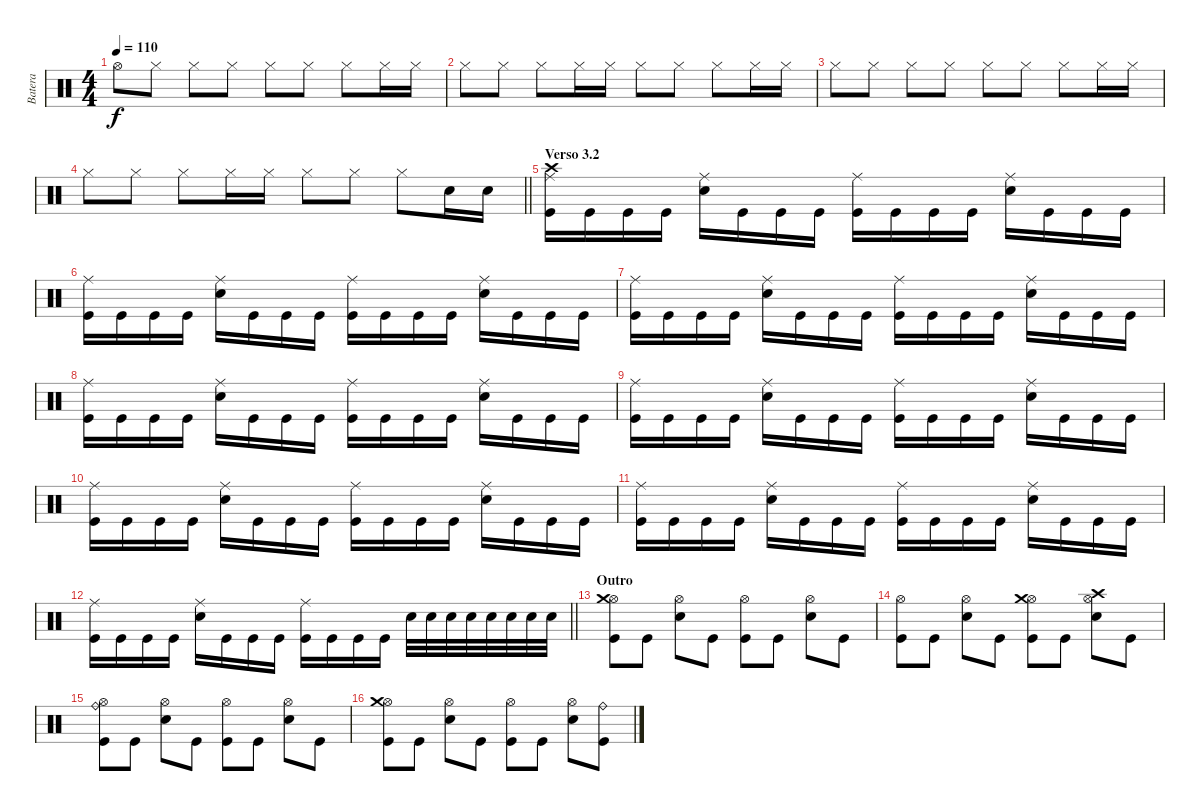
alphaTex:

\track ("Batera" "Batera") {instrument percussion}
\staff {score}
\articulation defaults
\ts (4 4)
\tempo 110
\clef neutral
\ks c "Hi-Hat (open)".8{dy f} "Hi-Hat (closed)".8 "Hi-Hat (closed)".8 "Hi-Hat (closed)".8 "Hi-Hat (closed)".8 "Hi-Hat (closed)".8 "Hi-Hat (closed)".8 "Hi-Hat (closed)".16 "Hi-Hat (closed)".16
|
"Hi-Hat (closed)".8 "Hi-Hat (closed)".8 "Hi-Hat (closed)".8 "Hi-Hat (closed)".16 "Hi-Hat (closed)".16 "Hi-Hat (closed)".8 "Hi-Hat (closed)".8 "Hi-Hat (closed)".8 "Hi-Hat (closed)".16 "Hi-Hat (closed)".16 |
"Hi-Hat (closed)".8 "Hi-Hat (closed)".8 "Hi-Hat (closed)".8 "Hi-Hat (closed)".8 "Hi-Hat (closed)".8 "Hi-Hat (closed)".8 "Hi-Hat (closed)".8 "Hi-Hat (closed)".16 "Hi-Hat (closed)".16 |
\barLineRight lightlight "Hi-Hat (closed)".8 "Hi-Hat (closed)".8 "Hi-Hat (closed)".8 "Hi-Hat (closed)".16 "Hi-Hat (closed)".16 "Hi-Hat (closed)".8 "Hi-Hat (closed)".8 "Hi-Hat (closed)".8 "Snare (hit) 2".16 "Snare (hit) 2".16
|
\section ("" "Verso 3.2")
("Ride (middle)" "Crash high (hit)" "Kick (hit)").16 "Kick (hit)".16 "Kick (hit)".16 "Kick (hit)".16 ("Ride (middle)" "Snare (hit) 2").16 "Kick (hit)".16 "Kick (hit)".16 "Kick (hit)".16 ("Ride (middle)" "Kick (hit)").16 "Kick (hit)".16 "Kick (hit)".16 "Kick (hit)".16 ("Ride (middle)" "Snare (hit) 2").16 "Kick (hit)".16 "Kick (hit)".16 "Kick (hit)".16 |
("Ride (middle)" "Kick (hit)").16 "Kick (hit)".16 "Kick (hit)".16 "Kick (hit)".16 ("Ride (middle)" "Snare (hit) 2").16 "Kick (hit)".16 "Kick (hit)".16 "Kick (hit)".16 ("Ride (middle)" "Kick (hit)").16 "Kick (hit)".16 "Kick (hit)".16 "Kick (hit)".16 ("Ride (middle)" "Snare (hit) 2").16 "Kick (hit)".16 "Kick (hit)".16 "Kick (hit)".16 |
("Ride (middle)" "Kick (hit)").16 "Kick (hit)".16 "Kick (hit)".16 "Kick (hit)".16 ("Ride (middle)" "Snare (hit) 2").16 "Kick (hit)".16 "Kick (hit)".16 "Kick (hit)".16 ("Ride (middle)" "Kick (hit)").16 "Kick (hit)".16 "Kick (hit)".16 "Kick (hit)".16 ("Ride (middle)" "Snare (hit) 2").16 "Kick (hit)".16 "Kick (hit)".16 "Kick (hit)".16 |
("Ride (middle)" "Kick (hit)").16 "Kick (hit)".16 "Kick (hit)".16 "Kick (hit)".16 ("Ride (middle)" "Snare (hit) 2").16 "Kick (hit)".16 "Kick (hit)".16 "Kick (hit)".16 ("Ride (middle)" "Kick (hit)").16 "Kick (hit)".16 "Kick (hit)".16 "Kick (hit)".16 ("Ride (middle)" "Snare (hit) 2").16 "Kick (hit)".16 "Kick (hit)".16 "Kick (hit)".16 |
("Ride (middle)" "Kick (hit)").16 "Kick (hit)".16 "Kick (hit)".16 "Kick (hit)".16 ("Ride (middle)" "Snare (hit) 2").16 "Kick (hit)".16 "Kick (hit)".16 "Kick (hit)".16 ("Ride (middle)" "Kick (hit)").16 "Kick (hit)".16 "Kick (hit)".16 "Kick (hit)".16 ("Ride (middle)" "Snare (hit) 2").16 "Kick (hit)".16 "Kick (hit)".16 "Kick (hit)".16 |
("Ride (middle)" "Kick (hit)").16 "Kick (hit)".16 "Kick (hit)".16 "Kick (hit)".16 ("Ride (middle)" "Snare (hit) 2").16 "Kick (hit)".16 "Kick (hit)".16 "Kick (hit)".16 ("Ride (middle)" "Kick (hit)").16 "Kick (hit)".16 "Kick (hit)".16 "Kick (hit)".16 ("Ride (middle)" "Snare (hit) 2").16 "Kick (hit)".16 "Kick (hit)".16 "Kick (hit)".16 |
("Ride (middle)" "Kick (hit)").16 "Kick (hit)".16 "Kick (hit)".16 "Kick (hit)".16 ("Ride (middle)" "Snare (hit) 2").16 "Kick (hit)".16 "Kick (hit)".16 "Kick (hit)".16 ("Ride (middle)" "Kick (hit)").16 "Kick (hit)".16 "Kick (hit)".16 "Kick (hit)".16 ("Ride (middle)" "Snare (hit) 2").16 "Kick (hit)".16 "Kick (hit)".16 "Kick (hit)".16 |
\barLineRight lightlight
("Ride (middle)" "Kick (hit)").16 "Kick (hit)".16 "Kick (hit)".16 "Kick (hit)".16 ("Ride (middle)" "Snare (hit) 2").16 "Kick (hit)".16 "Kick (hit)".16 "Kick (hit)".16 ("Ride (middle)" "Kick (hit)").16 "Kick (hit)".16 "Kick (hit)".16 "Kick (hit)".16 "Snare (hit) 2".32 "Snare (hit) 2".32 "Snare (hit) 2".32 "Snare (hit) 2".32 "Snare (hit) 2".32 "Snare (hit) 2".32 "Snare (hit) 2".32 "Snare (hit) 2".32 |
\section ("" "Outro")
("Hi-Hat (open)" "Kick (hit)" "Crash medium (hit)").8 "Kick (hit)".8 ("Hi-Hat (open)" "Snare (hit) 2").8 "Kick (hit)".8 ("Hi-Hat (open)" "Kick (hit)").8 "Kick (hit)".8 ("Hi-Hat (open)" "Snare (hit) 2").8 "Kick (hit)".8 |
("Hi-Hat (open)" "Kick (hit)").8 "Kick (hit)".8 ("Hi-Hat (open)" "Snare (hit) 2").8 "Kick (hit)".8 ("Hi-Hat (open)" "Kick (hit)" "Crash medium (hit)").8 "Kick (hit)".8 ("Hi-Hat (open)" "Snare (hit) 2" "Crash high (hit)").8 "Kick (hit)".8 |
("Hi-Hat (open)" "Kick (hit)" "Ride (bell)").8 "Kick (hit)".8 ("Hi-Hat (open)" "Snare (hit) 2").8 "Kick (hit)".8 ("Hi-Hat (open)" "Kick (hit)").8 "Kick (hit)".8 ("Hi-Hat (open)" "Snare (hit) 2").8 "Kick (hit)".8 |
("Hi-Hat (open)" "Kick (hit)" "Crash medium (hit)").8 "Kick (hit)".8 ("Hi-Hat (open)" "Snare (hit) 2").8 "Kick (hit)".8 ("Hi-Hat (open)" "Kick (hit)").8 "Kick (hit)".8 ("Hi-Hat (open)" "Snare (hit) 2").8 ("Kick (hit)" "Ride (bell)").8
